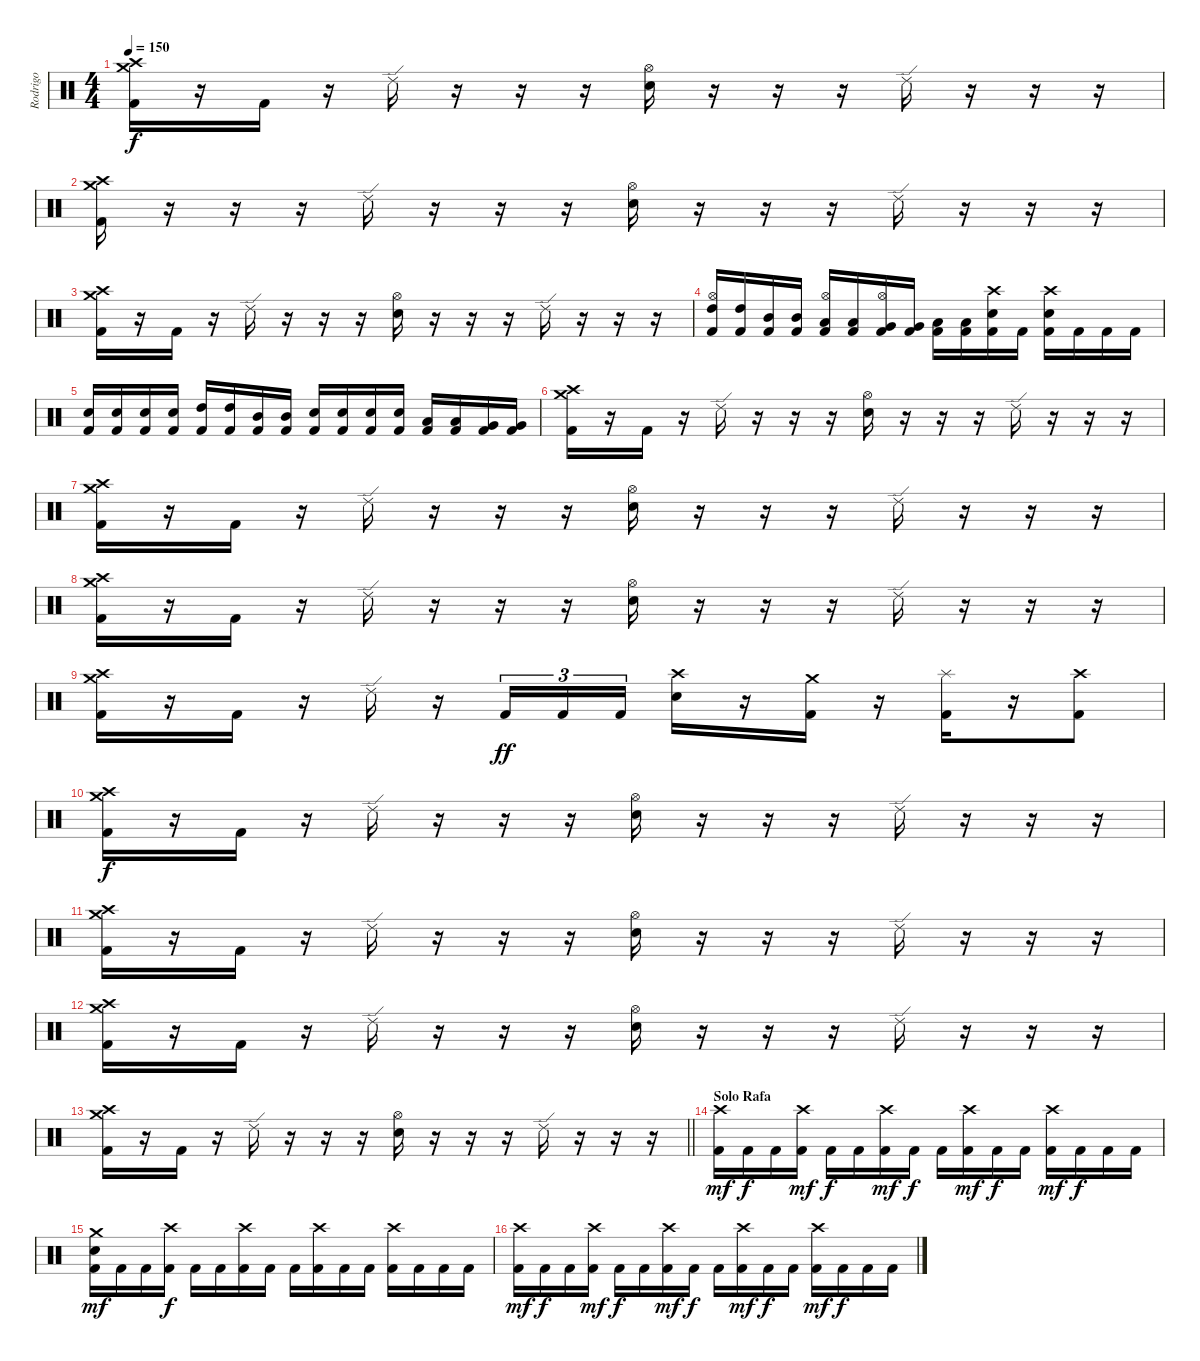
\track ("Rodrigo" "Rodrigo") {instrument percussion}
\staff {score}
\articulation defaults
\ts (4 4)
\tempo 150
\clef neutral
\ks c
("Crash high (hit)" "Crash medium (hit)" "Kick (hit) 2").16{dy f} r.16 "Kick (hit) 2".16 r.16 "Ride (edge) 2".16 r.16 r.16 r.16 ("Hi-Hat (open)" "Electric Snare (hit)").16 r.16 r.16 r.16 "Ride (edge) 2".16 r.16 r.16 r.16 |
("Crash high (hit)" "Crash medium (hit)" "Kick (hit) 2").16 r.16 r.16 r.16 "Ride (edge) 2".16 r.16 r.16 r.16 ("Hi-Hat (open)" "Electric Snare (hit)").16 r.16 r.16 r.16 "Ride (edge) 2".16 r.16 r.16 r.16 |
("Crash high (hit)" "Crash medium (hit)" "Kick (hit) 2").16 r.16 "Kick (hit) 2".16 r.16 "Ride (edge) 2".16 r.16 r.16 r.16 ("Hi-Hat (open)" "Electric Snare (hit)").16 r.16 r.16 r.16 "Ride (edge) 2".16 r.16 r.16 r.16 |
("High Tom (hit)" "Hi-Hat (open)" "Kick (hit) 2").16 ("High Tom (hit)" "Kick (hit) 2").16 ("Mid Tom (hit)" "Kick (hit) 2").16 ("Mid Tom (hit)" "Kick (hit) 2").16 ("Low Tom (hit)" "Hi-Hat (open)" "Kick (hit) 2").16 ("Low Tom (hit)" "Kick (hit) 2").16 ("Very Low Tom (hit)" "Hi-Hat (open)" "Kick (hit) 2").16 ("Very Low Tom (hit)" "Kick (hit) 2").16 ("Low Floor Tom (hit)" "Kick (hit) 2").16 ("Low Floor Tom (hit)" "Kick (hit) 2").16 ("Crash high (hit)" "Electric Snare (hit)" "Kick (hit) 2").16 "Kick (hit) 2".16 ("Crash high (hit)" "Electric Snare (hit)" "Kick (hit) 2").16 "Kick (hit) 2".16 "Kick (hit) 2".16 "Kick (hit) 2".16 |
("Electric Snare (hit)" "Kick (hit) 2").16 ("Electric Snare (hit)" "Kick (hit) 2").16 ("Electric Snare (hit)" "Kick (hit) 2").16 ("Electric Snare (hit)" "Kick (hit) 2").16 ("High Tom (hit)" "Kick (hit) 2").16 ("High Tom (hit)" "Kick (hit) 2").16 ("Mid Tom (hit)" "Kick (hit) 2").16 ("Mid Tom (hit)" "Kick (hit) 2").16 ("Electric Snare (hit)" "Kick (hit) 2").16 ("Electric Snare (hit)" "Kick (hit) 2").16 ("Electric Snare (hit)" "Kick (hit) 2").16 ("Electric Snare (hit)" "Kick (hit) 2").16 ("Low Tom (hit)" "Kick (hit) 2").16 ("Low Tom (hit)" "Kick (hit) 2").16 ("Very Low Tom (hit)" "Kick (hit) 2").16 ("Very Low Tom (hit)" "Kick (hit) 2").16 |
("Crash high (hit)" "Crash medium (hit)" "Kick (hit) 2").16 r.16 "Kick (hit) 2".16 r.16 "Ride (edge) 2".16 r.16 r.16 r.16 ("Hi-Hat (open)" "Electric Snare (hit)").16 r.16 r.16 r.16 "Ride (edge) 2".16 r.16 r.16 r.16 |
("Crash high (hit)" "Crash medium (hit)" "Kick (hit) 2").16 r.16 "Kick (hit) 2".16 r.16 "Ride (edge) 2".16 r.16 r.16 r.16 ("Hi-Hat (open)" "Electric Snare (hit)").16 r.16 r.16 r.16 "Ride (edge) 2".16 r.16 r.16 r.16 |
("Crash high (hit)" "Crash medium (hit)" "Kick (hit) 2").16 r.16 "Kick (hit) 2".16 r.16 "Ride (edge) 2".16 r.16 r.16 r.16 ("Hi-Hat (open)" "Electric Snare (hit)").16 r.16 r.16 r.16 "Ride (edge) 2".16 r.16 r.16 r.16 |
("Crash high (hit)" "Crash medium (hit)" "Kick (hit) 2").16 r.16 "Kick (hit) 2".16 r.16 "Ride (edge) 2".16 r.16 "Kick (hit) 2".16{tu (3 2) dy ff} "Kick (hit) 2".16{tu (3 2)} "Kick (hit) 2".16{tu (3 2)} ("Crash high (hit)" "Electric Snare (hit)").16 r.16 ("Crash medium (hit)" "Kick (hit) 2").16 r.16 ("Splash (hit)" "Kick (hit) 2").16 r.16 ("Crash high (hit)" "Kick (hit) 2").8 |
("Crash high (hit)" "Crash medium (hit)" "Kick (hit) 2").16{dy f} r.16 "Kick (hit) 2".16 r.16 "Ride (edge) 2".16 r.16 r.16 r.16 ("Hi-Hat (open)" "Electric Snare (hit)").16 r.16 r.16 r.16 "Ride (edge) 2".16 r.16 r.16 r.16 |
("Crash high (hit)" "Crash medium (hit)" "Kick (hit) 2").16 r.16 "Kick (hit) 2".16 r.16 "Ride (edge) 2".16 r.16 r.16 r.16 ("Hi-Hat (open)" "Electric Snare (hit)").16 r.16 r.16 r.16 "Ride (edge) 2".16 r.16 r.16 r.16 |
("Crash high (hit)" "Crash medium (hit)" "Kick (hit) 2").16 r.16 "Kick (hit) 2".16 r.16 "Ride (edge) 2".16 r.16 r.16 r.16 ("Hi-Hat (open)" "Electric Snare (hit)").16 r.16 r.16 r.16 "Ride (edge) 2".16 r.16 r.16 r.16 |
\barLineRight lightlight
("Crash high (hit)" "Crash medium (hit)" "Kick (hit) 2").16 r.16 "Kick (hit) 2".16 r.16 "Ride (edge) 2".16 r.16 r.16 r.16 ("Hi-Hat (open)" "Electric Snare (hit)").16 r.16 r.16 r.16 "Ride (edge) 2".16 r.16 r.16 r.16 |
\section ("" "Solo Rafa")
("Crash high (hit)" "Kick (hit) 2").16{dy mf} "Kick (hit) 2".16{dy f} "Kick (hit) 2".16 ("Crash high (hit)" "Kick (hit) 2").16{dy mf} "Kick (hit) 2".16{dy f} "Kick (hit) 2".16 ("Crash high (hit)" "Kick (hit) 2").16{dy mf} "Kick (hit) 2".16{dy f} "Kick (hit) 2".16 ("Crash high (hit)" "Kick (hit) 2").16{dy mf} "Kick (hit) 2".16{dy f} "Kick (hit) 2".16 ("Crash high (hit)" "Kick (hit) 2").16{dy mf} "Kick (hit) 2".16{dy f} "Kick (hit) 2".16 "Kick (hit) 2".16 |
("Crash medium (hit)" "Electric Snare (hit)" "Kick (hit) 2").16{dy mf} "Kick (hit) 2".16 "Kick (hit) 2".16 ("Crash high (hit)" "Kick (hit) 2").16{dy f} "Kick (hit) 2".16 "Kick (hit) 2".16 ("Crash high (hit)" "Kick (hit) 2").16 "Kick (hit) 2".16 "Kick (hit) 2".16 ("Crash high (hit)" "Kick (hit) 2").16 "Kick (hit) 2".16 "Kick (hit) 2".16 ("Crash high (hit)" "Kick (hit) 2").16 "Kick (hit) 2".16 "Kick (hit) 2".16 "Kick (hit) 2".16 |
("Crash high (hit)" "Kick (hit) 2").16{dy mf} "Kick (hit) 2".16{dy f} "Kick (hit) 2".16 ("Crash high (hit)" "Kick (hit) 2").16{dy mf} "Kick (hit) 2".16{dy f} "Kick (hit) 2".16 ("Crash high (hit)" "Kick (hit) 2").16{dy mf} "Kick (hit) 2".16{dy f} "Kick (hit) 2".16 ("Crash high (hit)" "Kick (hit) 2").16{dy mf} "Kick (hit) 2".16{dy f} "Kick (hit) 2".16 ("Crash high (hit)" "Kick (hit) 2").16{dy mf} "Kick (hit) 2".16{dy f} "Kick (hit) 2".16 "Kick (hit) 2".16
